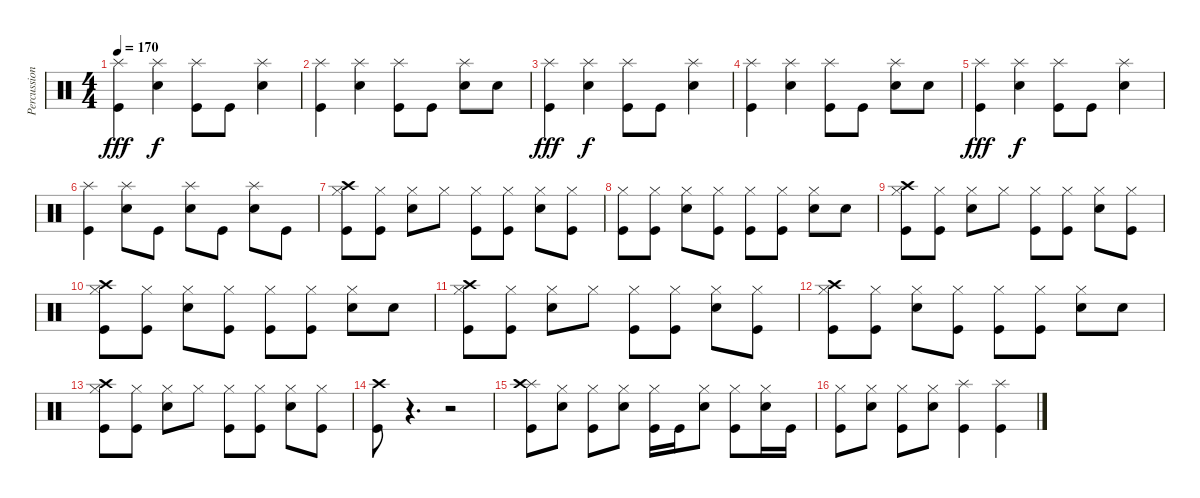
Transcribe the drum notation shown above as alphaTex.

\track ("Percussion" "Percussion") {instrument percussion}
\staff {score}
\articulation defaults
\ts (4 4)
\tempo 170
\clef neutral
\ks c
("Splash (hit)" "Kick (hit)").4{dy fff} ("Splash (hit)" "Electric Snare (hit)").4{dy f} ("Splash (hit)" "Kick (hit)").8 "Kick (hit)".8 ("Splash (hit)" "Electric Snare (hit)").4 |
("Splash (hit)" "Kick (hit)").4 ("Splash (hit)" "Electric Snare (hit)").4 ("Splash (hit)" "Kick (hit)").8 "Kick (hit)".8 ("Splash (hit)" "Electric Snare (hit)").8 "Electric Snare (hit)".8 |
("Splash (hit)" "Kick (hit)").4{dy fff} ("Splash (hit)" "Electric Snare (hit)").4{dy f} ("Splash (hit)" "Kick (hit)").8 "Kick (hit)".8 ("Splash (hit)" "Electric Snare (hit)").4 |
("Splash (hit)" "Kick (hit)").4 ("Splash (hit)" "Electric Snare (hit)").4 ("Splash (hit)" "Kick (hit)").8 "Kick (hit)".8 ("Splash (hit)" "Electric Snare (hit)").8 "Electric Snare (hit)".8 |
("Splash (hit)" "Kick (hit)").4{dy fff} ("Splash (hit)" "Electric Snare (hit)").4{dy f} ("Splash (hit)" "Kick (hit)").8 "Kick (hit)".8 ("Splash (hit)" "Electric Snare (hit)").4 |
("Splash (hit)" "Kick (hit)").4 ("Splash (hit)" "Electric Snare (hit)").8 "Kick (hit)".8 ("Splash (hit)" "Electric Snare (hit)").8 "Kick (hit)".8 ("Splash (hit)" "Electric Snare (hit)").8 "Kick (hit)".8 |
("Crash high (hit)" "Hi-Hat (closed)" "Kick (hit)").8 ("Hi-Hat (closed)" "Kick (hit)").8 ("Hi-Hat (closed)" "Electric Snare (hit)").8 "Hi-Hat (closed)".8 ("Hi-Hat (closed)" "Kick (hit)").8 ("Hi-Hat (closed)" "Kick (hit)").8 ("Hi-Hat (closed)" "Electric Snare (hit)").8 ("Hi-Hat (closed)" "Kick (hit)").8 |
("Hi-Hat (closed)" "Kick (hit)").8 ("Hi-Hat (closed)" "Kick (hit)").8 ("Hi-Hat (closed)" "Electric Snare (hit)").8 ("Hi-Hat (closed)" "Kick (hit)").8 ("Hi-Hat (closed)" "Kick (hit)").8 ("Hi-Hat (closed)" "Kick (hit)").8 ("Hi-Hat (closed)" "Electric Snare (hit)").8 "Electric Snare (hit)".8 |
("Crash high (hit)" "Hi-Hat (closed)" "Kick (hit)").8 ("Hi-Hat (closed)" "Kick (hit)").8 ("Hi-Hat (closed)" "Electric Snare (hit)").8 "Hi-Hat (closed)".8 ("Hi-Hat (closed)" "Kick (hit)").8 ("Hi-Hat (closed)" "Kick (hit)").8 ("Hi-Hat (closed)" "Electric Snare (hit)").8 ("Hi-Hat (closed)" "Kick (hit)").8 |
("Crash high (hit)" "Hi-Hat (closed)" "Kick (hit)").8 ("Hi-Hat (closed)" "Kick (hit)").8 ("Hi-Hat (closed)" "Electric Snare (hit)").8 ("Hi-Hat (closed)" "Kick (hit)").8 ("Hi-Hat (closed)" "Kick (hit)").8 ("Hi-Hat (closed)" "Kick (hit)").8 ("Hi-Hat (closed)" "Electric Snare (hit)").8 "Electric Snare (hit)".8 |
("Crash high (hit)" "Hi-Hat (closed)" "Kick (hit)").8 ("Hi-Hat (closed)" "Kick (hit)").8 ("Hi-Hat (closed)" "Electric Snare (hit)").8 "Hi-Hat (closed)".8 ("Hi-Hat (closed)" "Kick (hit)").8 ("Hi-Hat (closed)" "Kick (hit)").8 ("Hi-Hat (closed)" "Electric Snare (hit)").8 ("Hi-Hat (closed)" "Kick (hit)").8 |
("Crash high (hit)" "Hi-Hat (closed)" "Kick (hit)").8 ("Hi-Hat (closed)" "Kick (hit)").8 ("Hi-Hat (closed)" "Electric Snare (hit)").8 ("Hi-Hat (closed)" "Kick (hit)").8 ("Hi-Hat (closed)" "Kick (hit)").8 ("Hi-Hat (closed)" "Kick (hit)").8 ("Hi-Hat (closed)" "Electric Snare (hit)").8 "Electric Snare (hit)".8 |
("Crash high (hit)" "Hi-Hat (closed)" "Kick (hit)").8 ("Hi-Hat (closed)" "Kick (hit)").8 ("Hi-Hat (closed)" "Electric Snare (hit)").8 "Hi-Hat (closed)".8 ("Hi-Hat (closed)" "Kick (hit)").8 ("Hi-Hat (closed)" "Kick (hit)").8 ("Hi-Hat (closed)" "Electric Snare (hit)").8 ("Hi-Hat (closed)" "Kick (hit)").8 |
("Crash high (hit)" "Kick (hit)").8 r.4{d} r.2 |
("Splash (hit)" "Crash high (hit)" "Kick (hit)").8 ("Hi-Hat (closed)" "Electric Snare (hit)").8 ("Hi-Hat (closed)" "Kick (hit)").8 ("Hi-Hat (closed)" "Electric Snare (hit)").8 ("Hi-Hat (closed)" "Kick (hit)").16 "Kick (hit)".16 ("Hi-Hat (closed)" "Electric Snare (hit)").8 ("Hi-Hat (closed)" "Kick (hit)").8 ("Hi-Hat (closed)" "Electric Snare (hit)").16 "Kick (hit)".16 |
("Hi-Hat (closed)" "Kick (hit)").8 ("Hi-Hat (closed)" "Electric Snare (hit)").8 ("Hi-Hat (closed)" "Kick (hit)").8 ("Hi-Hat (closed)" "Electric Snare (hit)").8 ("Splash (hit)" "Kick (hit)").4 ("Splash (hit)" "Kick (hit)").4
